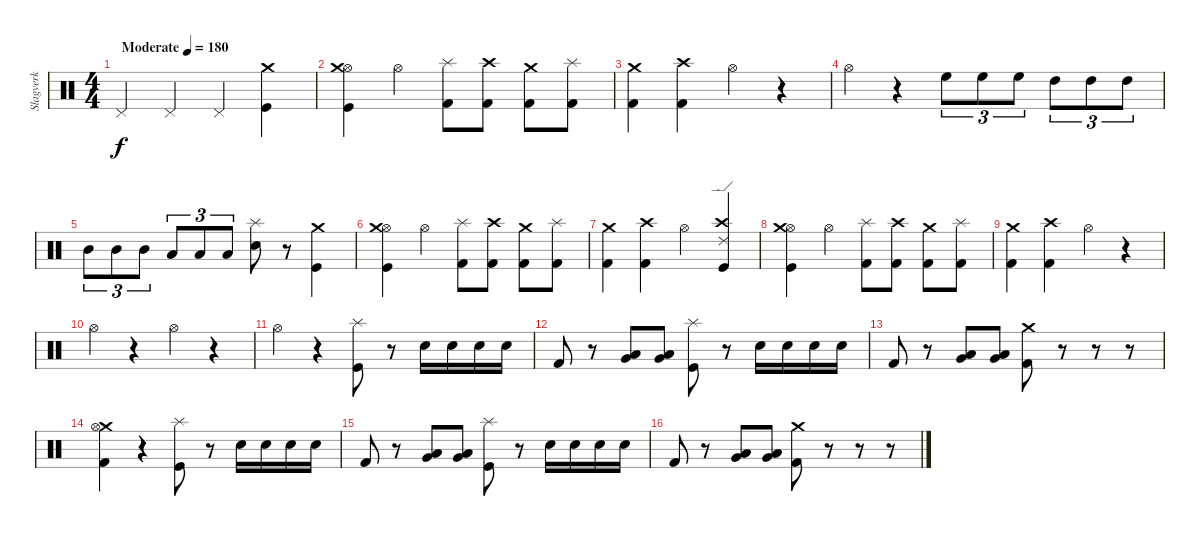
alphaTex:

\track ("Slagverk" "Slagverk") {instrument percussion}
\staff {score}
\articulation defaults
\ts (4 4)
\tempo (180 "Moderate")
\clef neutral
\ks c "Pedal Hi-Hat (hit)".4{dy f} "Pedal Hi-Hat (hit)".4 "Pedal Hi-Hat (hit)".4
("Crash medium (hit)" "Kick (hit)").4 |
("Hi-Hat (open)" "Crash medium (hit)" "Kick (hit)").4 "Hi-Hat (open)".4 ("Splash (hit)" "Kick (hit) 2").8 ("Crash high (hit)" "Kick (hit) 2").8 ("Crash medium (hit)" "Kick (hit) 2").8 ("Splash (hit)" "Kick (hit) 2").8 |
("Crash medium (hit)" "Kick (hit) 2").4 ("Crash high (hit)" "Kick (hit) 2").4 "Hi-Hat (open)".4 r.4 |
"Hi-Hat (open)".4 r.4 "High Floor Tom (hit)".8{tu (3 2)} "High Floor Tom (hit)".8{tu (3 2)} "High Floor Tom (hit)".8{tu (3 2)} "High Tom (hit)".8{tu (3 2)} "High Tom (hit)".8{tu (3 2)} "High Tom (hit)".8{tu (3 2)} |
"Mid Tom (hit)".8{tu (3 2)} "Mid Tom (hit)".8{tu (3 2)} "Mid Tom (hit)".8{tu (3 2)} "Low Tom (hit)".8{tu (3 2)} "Low Tom (hit)".8{tu (3 2)} "Low Tom (hit)".8{tu (3 2)} ("Splash (hit)" "Electric Snare (hit)").8 r.8 ("Crash medium (hit)" "Kick (hit)").4 |
("Hi-Hat (open)" "Crash medium (hit)" "Kick (hit)").4 "Hi-Hat (open)".4 ("Splash (hit)" "Kick (hit) 2").8 ("Crash high (hit)" "Kick (hit) 2").8 ("Crash medium (hit)" "Kick (hit) 2").8 ("Splash (hit)" "Kick (hit) 2").8 |
("Crash medium (hit)" "Kick (hit) 2").4 ("Crash high (hit)" "Kick (hit) 2").4 "Hi-Hat (open)".4 ("Crash high (hit)" "Ride (edge) 2" "Kick (hit)").4 |
("Hi-Hat (open)" "Crash medium (hit)" "Kick (hit)").4 "Hi-Hat (open)".4 ("Splash (hit)" "Kick (hit) 2").8 ("Crash high (hit)" "Kick (hit) 2").8 ("Crash medium (hit)" "Kick (hit) 2").8 ("Splash (hit)" "Kick (hit) 2").8 |
("Crash medium (hit)" "Kick (hit) 2").4 ("Crash high (hit)" "Kick (hit) 2").4 "Hi-Hat (open)".4 r.4 |
"Hi-Hat (open)".4 r.4 "Hi-Hat (open)".4 r.4 |
"Hi-Hat (open)".4 r.4 ("Splash (hit)" "Kick (hit)").8 r.8 "Electric Snare (hit)".16 "Electric Snare (hit)".16 "Electric Snare (hit)".16 "Electric Snare (hit)".16 |
"Kick (hit) 2".8 r.8 ("Very Low Tom (hit)" "Low Tom (hit)").8 ("Very Low Tom (hit)" "Low Tom (hit)").8 ("Splash (hit)" "Kick (hit)").8 r.8 "Electric Snare (hit)".16 "Electric Snare (hit)".16 "Electric Snare (hit)".16 "Electric Snare (hit)".16 |
"Kick (hit) 2".8 r.8 ("Very Low Tom (hit)" "Low Tom (hit)").8 ("Very Low Tom (hit)" "Low Tom (hit)").8 ("Crash medium (hit)" "Kick (hit) 2").8 r.8 r.8 r.8 |
("Crash medium (hit)" "Hi-Hat (open)" "Kick (hit) 2").4 r.4 ("Splash (hit)" "Kick (hit)").8 r.8 "Electric Snare (hit)".16 "Electric Snare (hit)".16 "Electric Snare (hit)".16 "Electric Snare (hit)".16 |
"Kick (hit) 2".8 r.8 ("Very Low Tom (hit)" "Low Tom (hit)").8 ("Very Low Tom (hit)" "Low Tom (hit)").8 ("Splash (hit)" "Kick (hit)").8 r.8 "Electric Snare (hit)".16 "Electric Snare (hit)".16 "Electric Snare (hit)".16 "Electric Snare (hit)".16 |
"Kick (hit) 2".8 r.8 ("Very Low Tom (hit)" "Low Tom (hit)").8 ("Very Low Tom (hit)" "Low Tom (hit)").8 ("Crash medium (hit)" "Kick (hit) 2").8 r.8 r.8 r.8
